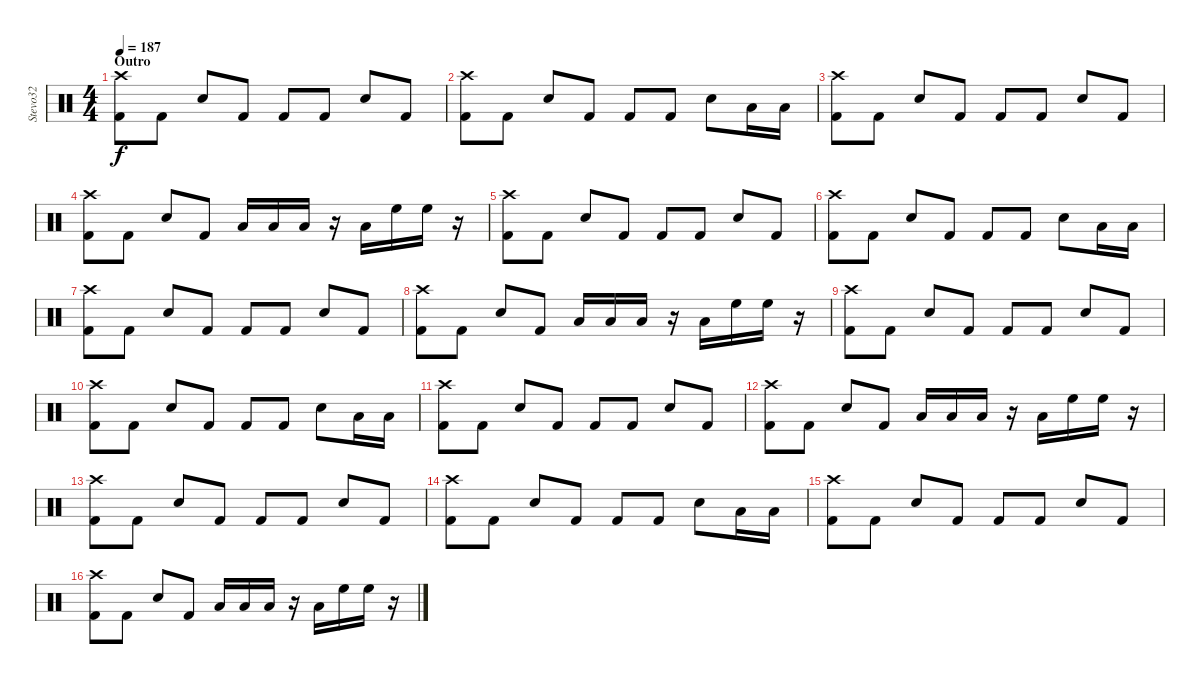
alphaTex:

\track ("Stevo32" "Stevo32") {instrument percussion}
\staff {score}
\articulation defaults
\ts (4 4)
\section ("" "Outro")
\tempo 187
\clef neutral
\ks c
("Kick (hit) 2" "Crash high (hit)").8{dy f} "Kick (hit) 2".8 "Snare (hit) 2".8 "Kick (hit) 2".8 "Kick (hit) 2".8 "Kick (hit) 2".8 "Snare (hit) 2".8 "Kick (hit) 2".8 |
("Kick (hit) 2" "Crash high (hit)").8 "Kick (hit) 2".8 "Snare (hit) 2".8 "Kick (hit) 2".8 "Kick (hit) 2".8 "Kick (hit) 2".8 "Snare (hit) 2".8 "Low Floor Tom (hit)".16 "Low Floor Tom (hit)".16 |
("Kick (hit) 2" "Crash high (hit)").8 "Kick (hit) 2".8 "Snare (hit) 2".8 "Kick (hit) 2".8 "Kick (hit) 2".8 "Kick (hit) 2".8 "Snare (hit) 2".8 "Kick (hit) 2".8 |
("Kick (hit) 2" "Crash high (hit)").8 "Kick (hit) 2".8 "Snare (hit) 2".8 "Kick (hit) 2".8 "Low Floor Tom (hit)".16 "Low Floor Tom (hit)".16 "Low Tom (hit)".16 r.16 "Low Tom (hit)".16 "High Floor Tom (hit)".16 "High Floor Tom (hit)".16 r.16 |
("Kick (hit) 2" "Crash high (hit)").8 "Kick (hit) 2".8 "Snare (hit) 2".8 "Kick (hit) 2".8 "Kick (hit) 2".8 "Kick (hit) 2".8 "Snare (hit) 2".8 "Kick (hit) 2".8 |
("Kick (hit) 2" "Crash high (hit)").8 "Kick (hit) 2".8 "Snare (hit) 2".8 "Kick (hit) 2".8 "Kick (hit) 2".8 "Kick (hit) 2".8 "Snare (hit) 2".8 "Low Floor Tom (hit)".16 "Low Floor Tom (hit)".16 |
("Kick (hit) 2" "Crash high (hit)").8 "Kick (hit) 2".8 "Snare (hit) 2".8 "Kick (hit) 2".8 "Kick (hit) 2".8 "Kick (hit) 2".8 "Snare (hit) 2".8 "Kick (hit) 2".8 |
("Kick (hit) 2" "Crash high (hit)").8 "Kick (hit) 2".8 "Snare (hit) 2".8 "Kick (hit) 2".8 "Low Floor Tom (hit)".16 "Low Floor Tom (hit)".16 "Low Tom (hit)".16 r.16 "Low Tom (hit)".16 "High Floor Tom (hit)".16 "High Floor Tom (hit)".16 r.16 |
("Kick (hit) 2" "Crash high (hit)").8 "Kick (hit) 2".8 "Snare (hit) 2".8 "Kick (hit) 2".8 "Kick (hit) 2".8 "Kick (hit) 2".8 "Snare (hit) 2".8 "Kick (hit) 2".8 |
("Kick (hit) 2" "Crash high (hit)").8 "Kick (hit) 2".8 "Snare (hit) 2".8 "Kick (hit) 2".8 "Kick (hit) 2".8 "Kick (hit) 2".8 "Snare (hit) 2".8 "Low Floor Tom (hit)".16 "Low Floor Tom (hit)".16 |
("Kick (hit) 2" "Crash high (hit)").8 "Kick (hit) 2".8 "Snare (hit) 2".8 "Kick (hit) 2".8 "Kick (hit) 2".8 "Kick (hit) 2".8 "Snare (hit) 2".8 "Kick (hit) 2".8 |
("Kick (hit) 2" "Crash high (hit)").8 "Kick (hit) 2".8 "Snare (hit) 2".8 "Kick (hit) 2".8 "Low Floor Tom (hit)".16 "Low Floor Tom (hit)".16 "Low Tom (hit)".16 r.16 "Low Tom (hit)".16 "High Floor Tom (hit)".16 "High Floor Tom (hit)".16 r.16 |
("Kick (hit) 2" "Crash high (hit)").8 "Kick (hit) 2".8 "Snare (hit) 2".8 "Kick (hit) 2".8 "Kick (hit) 2".8 "Kick (hit) 2".8 "Snare (hit) 2".8 "Kick (hit) 2".8 |
("Kick (hit) 2" "Crash high (hit)").8 "Kick (hit) 2".8 "Snare (hit) 2".8 "Kick (hit) 2".8 "Kick (hit) 2".8 "Kick (hit) 2".8 "Snare (hit) 2".8 "Low Floor Tom (hit)".16 "Low Floor Tom (hit)".16 |
("Kick (hit) 2" "Crash high (hit)").8 "Kick (hit) 2".8 "Snare (hit) 2".8 "Kick (hit) 2".8 "Kick (hit) 2".8 "Kick (hit) 2".8 "Snare (hit) 2".8 "Kick (hit) 2".8 |
("Kick (hit) 2" "Crash high (hit)").8 "Kick (hit) 2".8 "Snare (hit) 2".8 "Kick (hit) 2".8 "Low Floor Tom (hit)".16 "Low Floor Tom (hit)".16 "Low Tom (hit)".16 r.16 "Low Tom (hit)".16 "High Floor Tom (hit)".16 "High Floor Tom (hit)".16 r.16
